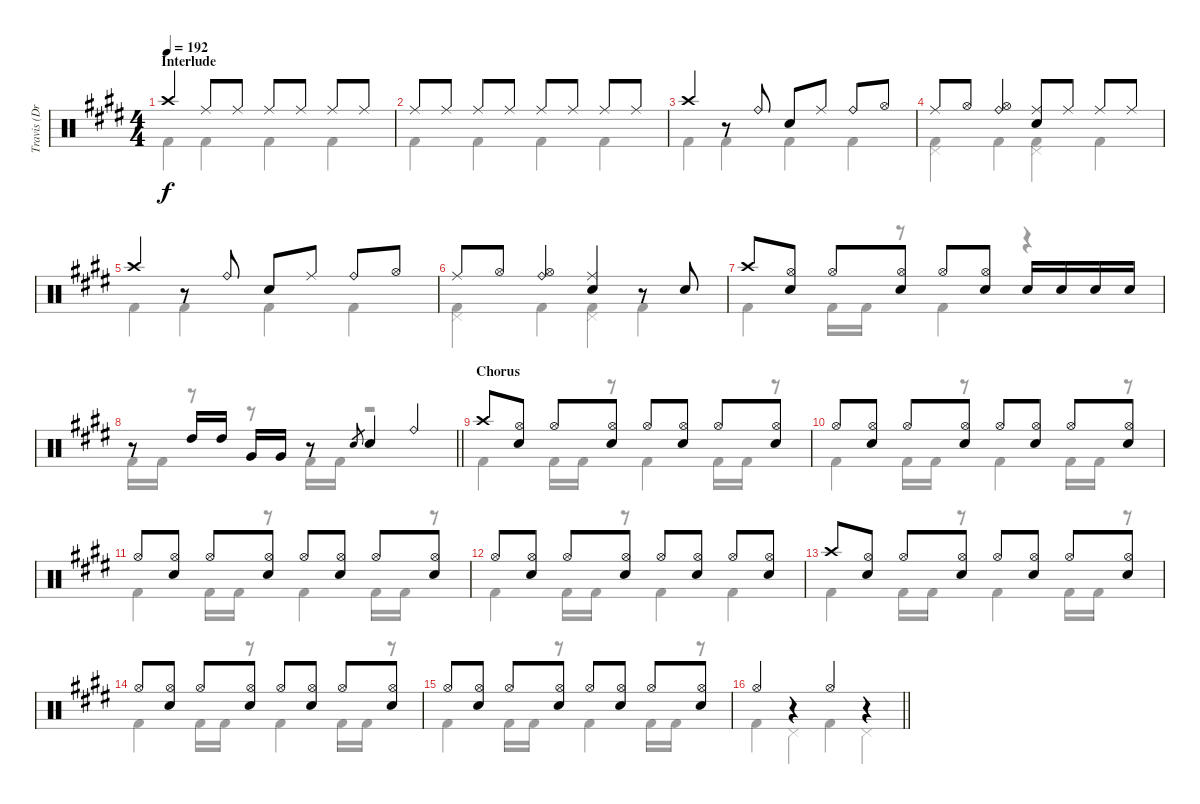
\track ("Travis (Drums)" "Travis (Dr") {instrument percussion}
\staff {score}
\articulation defaults
\voice
\ts (4 4)
\section ("" "Interlude")
\tempo 192
\clef neutral
\ks e "Crash high (hit)".4{dy f} "Ride (middle)".8 "Ride (middle)".8 "Ride (middle)".8 "Ride (middle)".8 "Ride (middle)".8 "Ride (middle)".8
|
"Ride (middle)".8 "Ride (middle)".8 "Ride (middle)".8 "Ride (middle)".8 "Ride (middle)".8 "Ride (middle)".8 "Ride (middle)".8 "Ride (middle)".8 |
"Crash high (hit)".4 r.8 "Ride (bell)".8 "Electric Snare (hit)".8 "Ride (middle)".8 "Ride (bell)".8 "Hi-Hat (open)".8 |
"Ride (middle)".8 "Hi-Hat (open)".8 ("Ride (bell)" "Hi-Hat (open)").4 ("Ride (middle)" "Electric Snare (hit)").8 "Ride (middle)".8 "Ride (middle)".8 "Ride (middle)".8 |
"Crash high (hit)".4 r.8 "Ride (bell)".8 "Electric Snare (hit)".8 "Ride (middle)".8 "Ride (bell)".8 "Hi-Hat (open)".8 |
"Ride (middle)".8 "Hi-Hat (open)".8 ("Ride (bell)" "Hi-Hat (open)").4 ("Ride (middle)" "Electric Snare (hit)").4 r.8 "Electric Snare (hit)".8 |
"Crash high (hit)".8 ("Hi-Hat (open)" "Electric Snare (hit)").8 "Hi-Hat (open)".8 ("Hi-Hat (open)" "Electric Snare (hit)").8 "Hi-Hat (open)".8 ("Hi-Hat (open)" "Electric Snare (hit)").8 "Electric Snare (hit)".16 "Electric Snare (hit)".16 "Electric Snare (hit)".16 "Electric Snare (hit)".16 |
\barLineRight lightlight
r.8 "High Tom (hit)".16 "High Tom (hit)".16 "Very Low Tom (hit)".16 "Very Low Tom (hit)".16 r.8 "Electric Snare (hit)".8{gr} "Electric Snare (hit)".4 "Ride (bell)".4 |
\section ("" "Chorus")
"Crash high (hit)".8 ("Hi-Hat (open)" "Electric Snare (hit)").8 "Hi-Hat (open)".8 ("Hi-Hat (open)" "Electric Snare (hit)").8 "Hi-Hat (open)".8 ("Hi-Hat (open)" "Electric Snare (hit)").8 "Hi-Hat (open)".8 ("Hi-Hat (open)" "Electric Snare (hit)").8 |
"Hi-Hat (open)".8 ("Hi-Hat (open)" "Electric Snare (hit)").8 "Hi-Hat (open)".8 ("Hi-Hat (open)" "Electric Snare (hit)").8 "Hi-Hat (open)".8 ("Hi-Hat (open)" "Electric Snare (hit)").8 "Hi-Hat (open)".8 ("Hi-Hat (open)" "Electric Snare (hit)").8 |
"Hi-Hat (open)".8 ("Hi-Hat (open)" "Electric Snare (hit)").8 "Hi-Hat (open)".8 ("Hi-Hat (open)" "Electric Snare (hit)").8 "Hi-Hat (open)".8 ("Hi-Hat (open)" "Electric Snare (hit)").8 "Hi-Hat (open)".8 ("Hi-Hat (open)" "Electric Snare (hit)").8 |
"Hi-Hat (open)".8 ("Hi-Hat (open)" "Electric Snare (hit)").8 "Hi-Hat (open)".8 ("Hi-Hat (open)" "Electric Snare (hit)").8 "Hi-Hat (open)".8 ("Hi-Hat (open)" "Electric Snare (hit)").8 "Hi-Hat (open)".8 ("Hi-Hat (open)" "Electric Snare (hit)").8 |
"Crash high (hit)".8 ("Hi-Hat (open)" "Electric Snare (hit)").8 "Hi-Hat (open)".8 ("Hi-Hat (open)" "Electric Snare (hit)").8 "Hi-Hat (open)".8 ("Hi-Hat (open)" "Electric Snare (hit)").8 "Hi-Hat (open)".8 ("Hi-Hat (open)" "Electric Snare (hit)").8 |
"Hi-Hat (open)".8 ("Hi-Hat (open)" "Electric Snare (hit)").8 "Hi-Hat (open)".8 ("Hi-Hat (open)" "Electric Snare (hit)").8 "Hi-Hat (open)".8 ("Hi-Hat (open)" "Electric Snare (hit)").8 "Hi-Hat (open)".8 ("Hi-Hat (open)" "Electric Snare (hit)").8 |
"Hi-Hat (open)".8 ("Hi-Hat (open)" "Electric Snare (hit)").8 "Hi-Hat (open)".8 ("Hi-Hat (open)" "Electric Snare (hit)").8 "Hi-Hat (open)".8 ("Hi-Hat (open)" "Electric Snare (hit)").8 "Hi-Hat (open)".8 ("Hi-Hat (open)" "Electric Snare (hit)").8 |
\barLineRight lightlight "Hi-Hat (open)".4
r.4 "Hi-Hat (open)".4 r.4
\voice
\clef neutral
\ottava regular
\simile none
\ks e "Kick (hit) 2".4{dy f} "Kick (hit) 2".4 "Kick (hit) 2".4 "Kick (hit) 2".4
|
"Kick (hit) 2".4 "Kick (hit) 2".4 "Kick (hit) 2".4 "Kick (hit) 2".4 |
"Kick (hit) 2".4 "Kick (hit) 2".4 "Kick (hit) 2".4 "Kick (hit) 2".4 |
("Kick (hit) 2" "Pedal Hi-Hat (hit)").4 "Kick (hit) 2".4 ("Kick (hit) 2" "Pedal Hi-Hat (hit)").4 "Kick (hit) 2".4 |
"Kick (hit) 2".4 "Kick (hit) 2".4 "Kick (hit) 2".4 "Kick (hit) 2".4 |
("Kick (hit) 2" "Pedal Hi-Hat (hit)").4 "Kick (hit) 2".4 ("Kick (hit) 2" "Pedal Hi-Hat (hit)").4 "Kick (hit) 2".4 |
"Kick (hit) 2".4 "Kick (hit) 2".16 "Kick (hit) 2".16 r.8 "Kick (hit) 2".4 r.4 |
\barLineRight lightlight "Kick (hit) 2".16 "Kick (hit) 2".16
r.8 r.8 "Kick (hit) 2".16 "Kick (hit) 2".16 r.2 |
"Kick (hit) 2".4 "Kick (hit) 2".16 "Kick (hit) 2".16 r.8 "Kick (hit) 2".4 "Kick (hit) 2".16 "Kick (hit) 2".16 r.8 |
"Kick (hit) 2".4 "Kick (hit) 2".16 "Kick (hit) 2".16 r.8 "Kick (hit) 2".4 "Kick (hit) 2".16 "Kick (hit) 2".16 r.8 |
"Kick (hit) 2".4 "Kick (hit) 2".16 "Kick (hit) 2".16 r.8 "Kick (hit) 2".4 "Kick (hit) 2".16 "Kick (hit) 2".16 r.8 |
"Kick (hit) 2".4 "Kick (hit) 2".16 "Kick (hit) 2".16 r.8 "Kick (hit) 2".4 "Kick (hit) 2".4 |
"Kick (hit) 2".4 "Kick (hit) 2".16 "Kick (hit) 2".16 r.8 "Kick (hit) 2".4 "Kick (hit) 2".16 "Kick (hit) 2".16 r.8 |
"Kick (hit) 2".4 "Kick (hit) 2".16 "Kick (hit) 2".16 r.8 "Kick (hit) 2".4 "Kick (hit) 2".16 "Kick (hit) 2".16 r.8 |
"Kick (hit) 2".4 "Kick (hit) 2".16 "Kick (hit) 2".16 r.8 "Kick (hit) 2".4 "Kick (hit) 2".16 "Kick (hit) 2".16 r.8 |
\barLineRight lightlight "Kick (hit) 2".4 "Pedal Hi-Hat (hit)".4 "Kick (hit) 2".4 "Pedal Hi-Hat (hit)".4
